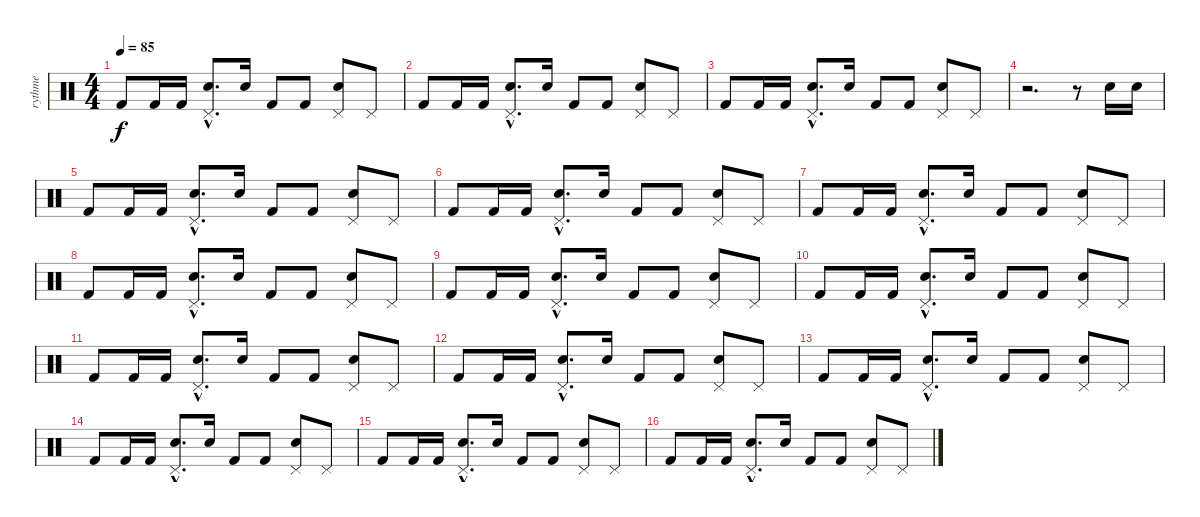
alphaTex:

\track ("rythme" "rythme") {instrument percussion}
\staff {score}
\articulation defaults
\ts (4 4)
\tempo 85
\clef neutral
\ks c "Kick (hit) 2".8{dy f} "Kick (hit) 2".16 "Kick (hit) 2".16
("Pedal Hi-Hat (hit)"{hac} "Electric Snare (hit)"{hac}).8{d} "Electric Snare (hit)".16 "Kick (hit) 2".8 "Kick (hit) 2".8 ("Pedal Hi-Hat (hit)" "Electric Snare (hit)").8 "Pedal Hi-Hat (hit)".8 |
"Kick (hit) 2".8 "Kick (hit) 2".16 "Kick (hit) 2".16 ("Pedal Hi-Hat (hit)"{hac} "Electric Snare (hit)"{hac}).8{d} "Electric Snare (hit)".16 "Kick (hit) 2".8 "Kick (hit) 2".8 ("Pedal Hi-Hat (hit)" "Electric Snare (hit)").8 "Pedal Hi-Hat (hit)".8 |
"Kick (hit) 2".8 "Kick (hit) 2".16 "Kick (hit) 2".16 ("Pedal Hi-Hat (hit)"{hac} "Electric Snare (hit)"{hac}).8{d} "Electric Snare (hit)".16 "Kick (hit) 2".8 "Kick (hit) 2".8 ("Pedal Hi-Hat (hit)" "Electric Snare (hit)").8 "Pedal Hi-Hat (hit)".8 |
r.2{d} r.8 "Electric Snare (hit)".16 "Electric Snare (hit)".16 |
"Kick (hit) 2".8 "Kick (hit) 2".16 "Kick (hit) 2".16 ("Pedal Hi-Hat (hit)"{hac} "Electric Snare (hit)"{hac}).8{d} "Electric Snare (hit)".16 "Kick (hit) 2".8 "Kick (hit) 2".8 ("Pedal Hi-Hat (hit)" "Electric Snare (hit)").8 "Pedal Hi-Hat (hit)".8 |
"Kick (hit) 2".8 "Kick (hit) 2".16 "Kick (hit) 2".16 ("Pedal Hi-Hat (hit)"{hac} "Electric Snare (hit)"{hac}).8{d} "Electric Snare (hit)".16 "Kick (hit) 2".8 "Kick (hit) 2".8 ("Pedal Hi-Hat (hit)" "Electric Snare (hit)").8 "Pedal Hi-Hat (hit)".8 |
"Kick (hit) 2".8 "Kick (hit) 2".16 "Kick (hit) 2".16 ("Pedal Hi-Hat (hit)"{hac} "Electric Snare (hit)"{hac}).8{d} "Electric Snare (hit)".16 "Kick (hit) 2".8 "Kick (hit) 2".8 ("Pedal Hi-Hat (hit)" "Electric Snare (hit)").8 "Pedal Hi-Hat (hit)".8 |
"Kick (hit) 2".8 "Kick (hit) 2".16 "Kick (hit) 2".16 ("Pedal Hi-Hat (hit)"{hac} "Electric Snare (hit)"{hac}).8{d} "Electric Snare (hit)".16 "Kick (hit) 2".8 "Kick (hit) 2".8 ("Pedal Hi-Hat (hit)" "Electric Snare (hit)").8 "Pedal Hi-Hat (hit)".8 |
"Kick (hit) 2".8 "Kick (hit) 2".16 "Kick (hit) 2".16 ("Pedal Hi-Hat (hit)"{hac} "Electric Snare (hit)"{hac}).8{d} "Electric Snare (hit)".16 "Kick (hit) 2".8 "Kick (hit) 2".8 ("Pedal Hi-Hat (hit)" "Electric Snare (hit)").8 "Pedal Hi-Hat (hit)".8 |
"Kick (hit) 2".8 "Kick (hit) 2".16 "Kick (hit) 2".16 ("Pedal Hi-Hat (hit)"{hac} "Electric Snare (hit)"{hac}).8{d} "Electric Snare (hit)".16 "Kick (hit) 2".8 "Kick (hit) 2".8 ("Pedal Hi-Hat (hit)" "Electric Snare (hit)").8 "Pedal Hi-Hat (hit)".8 |
"Kick (hit) 2".8 "Kick (hit) 2".16 "Kick (hit) 2".16 ("Pedal Hi-Hat (hit)"{hac} "Electric Snare (hit)"{hac}).8{d} "Electric Snare (hit)".16 "Kick (hit) 2".8 "Kick (hit) 2".8 ("Pedal Hi-Hat (hit)" "Electric Snare (hit)").8 "Pedal Hi-Hat (hit)".8 |
"Kick (hit) 2".8 "Kick (hit) 2".16 "Kick (hit) 2".16 ("Pedal Hi-Hat (hit)"{hac} "Electric Snare (hit)"{hac}).8{d} "Electric Snare (hit)".16 "Kick (hit) 2".8 "Kick (hit) 2".8 ("Pedal Hi-Hat (hit)" "Electric Snare (hit)").8 "Pedal Hi-Hat (hit)".8 |
"Kick (hit) 2".8 "Kick (hit) 2".16 "Kick (hit) 2".16 ("Pedal Hi-Hat (hit)"{hac} "Electric Snare (hit)"{hac}).8{d} "Electric Snare (hit)".16 "Kick (hit) 2".8 "Kick (hit) 2".8 ("Pedal Hi-Hat (hit)" "Electric Snare (hit)").8 "Pedal Hi-Hat (hit)".8 |
"Kick (hit) 2".8 "Kick (hit) 2".16 "Kick (hit) 2".16 ("Pedal Hi-Hat (hit)"{hac} "Electric Snare (hit)"{hac}).8{d} "Electric Snare (hit)".16 "Kick (hit) 2".8 "Kick (hit) 2".8 ("Pedal Hi-Hat (hit)" "Electric Snare (hit)").8 "Pedal Hi-Hat (hit)".8 |
"Kick (hit) 2".8 "Kick (hit) 2".16 "Kick (hit) 2".16 ("Pedal Hi-Hat (hit)"{hac} "Electric Snare (hit)"{hac}).8{d} "Electric Snare (hit)".16 "Kick (hit) 2".8 "Kick (hit) 2".8 ("Pedal Hi-Hat (hit)" "Electric Snare (hit)").8 "Pedal Hi-Hat (hit)".8 |
"Kick (hit) 2".8 "Kick (hit) 2".16 "Kick (hit) 2".16 ("Pedal Hi-Hat (hit)"{hac} "Electric Snare (hit)"{hac}).8{d} "Electric Snare (hit)".16 "Kick (hit) 2".8 "Kick (hit) 2".8 ("Pedal Hi-Hat (hit)" "Electric Snare (hit)").8 "Pedal Hi-Hat (hit)".8
